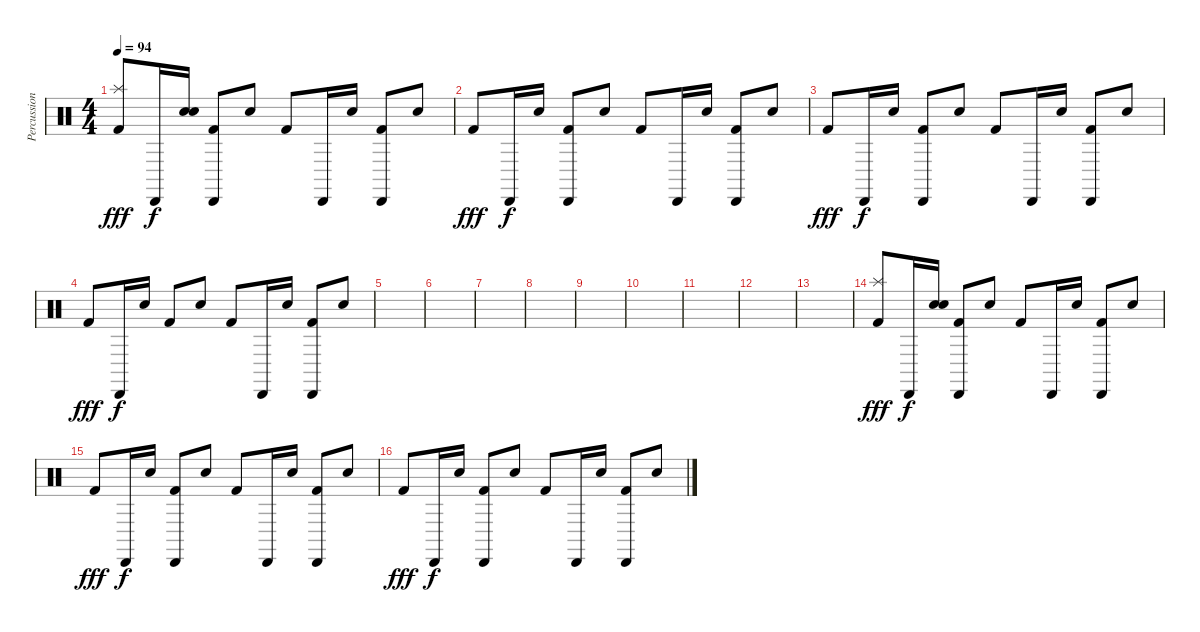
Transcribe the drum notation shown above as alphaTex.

\track ("Percussions" "Percussion") {instrument percussion}
\staff {score}
\articulation defaults
\ts (4 4)
\tempo 94
\clef neutral
\ks c
("Splash (hit)" "Kick (hit) 2").8{dy fff} "Cabasa (hit)".16{dy f} ("Snare (hit) 2" "Electric Snare (hit)").16 ("Cabasa (hit)" "Kick (hit) 2").8 "Electric Snare (hit)".8 "Kick (hit) 2".8 "Cabasa (hit)".16 "Electric Snare (hit)".16 ("Cabasa (hit)" "Kick (hit) 2").8 "Electric Snare (hit)".8 |
"Kick (hit) 2".8{dy fff} "Cabasa (hit)".16{dy f} "Electric Snare (hit)".16 ("Cabasa (hit)" "Kick (hit) 2").8 "Electric Snare (hit)".8 "Kick (hit) 2".8 "Cabasa (hit)".16 "Electric Snare (hit)".16 ("Cabasa (hit)" "Kick (hit) 2").8 "Electric Snare (hit)".8 |
"Kick (hit) 2".8{dy fff} "Cabasa (hit)".16{dy f} "Electric Snare (hit)".16 ("Cabasa (hit)" "Kick (hit) 2").8 "Electric Snare (hit)".8 "Kick (hit) 2".8 "Cabasa (hit)".16 "Electric Snare (hit)".16 ("Cabasa (hit)" "Kick (hit) 2").8 "Electric Snare (hit)".8 |
"Kick (hit) 2".8{dy fff} "Cabasa (hit)".16{dy f} "Electric Snare (hit)".16 "Kick (hit) 2".8 "Electric Snare (hit)".8 "Kick (hit) 2".8 "Cabasa (hit)".16 "Electric Snare (hit)".16 ("Cabasa (hit)" "Kick (hit) 2").8 "Electric Snare (hit)".8 |
|
|
|
|
|
|
|
|
|
("Splash (hit)" "Kick (hit) 2").8{dy fff} "Cabasa (hit)".16{dy f} ("Snare (hit) 2" "Electric Snare (hit)").16 ("Cabasa (hit)" "Kick (hit) 2").8 "Electric Snare (hit)".8 "Kick (hit) 2".8 "Cabasa (hit)".16 "Electric Snare (hit)".16 ("Cabasa (hit)" "Kick (hit) 2").8 "Electric Snare (hit)".8 |
"Kick (hit) 2".8{dy fff} "Cabasa (hit)".16{dy f} "Electric Snare (hit)".16 ("Cabasa (hit)" "Kick (hit) 2").8 "Electric Snare (hit)".8 "Kick (hit) 2".8 "Cabasa (hit)".16 "Electric Snare (hit)".16 ("Cabasa (hit)" "Kick (hit) 2").8 "Electric Snare (hit)".8 |
"Kick (hit) 2".8{dy fff} "Cabasa (hit)".16{dy f} "Electric Snare (hit)".16 ("Cabasa (hit)" "Kick (hit) 2").8 "Electric Snare (hit)".8 "Kick (hit) 2".8 "Cabasa (hit)".16 "Electric Snare (hit)".16 ("Cabasa (hit)" "Kick (hit) 2").8 "Electric Snare (hit)".8
